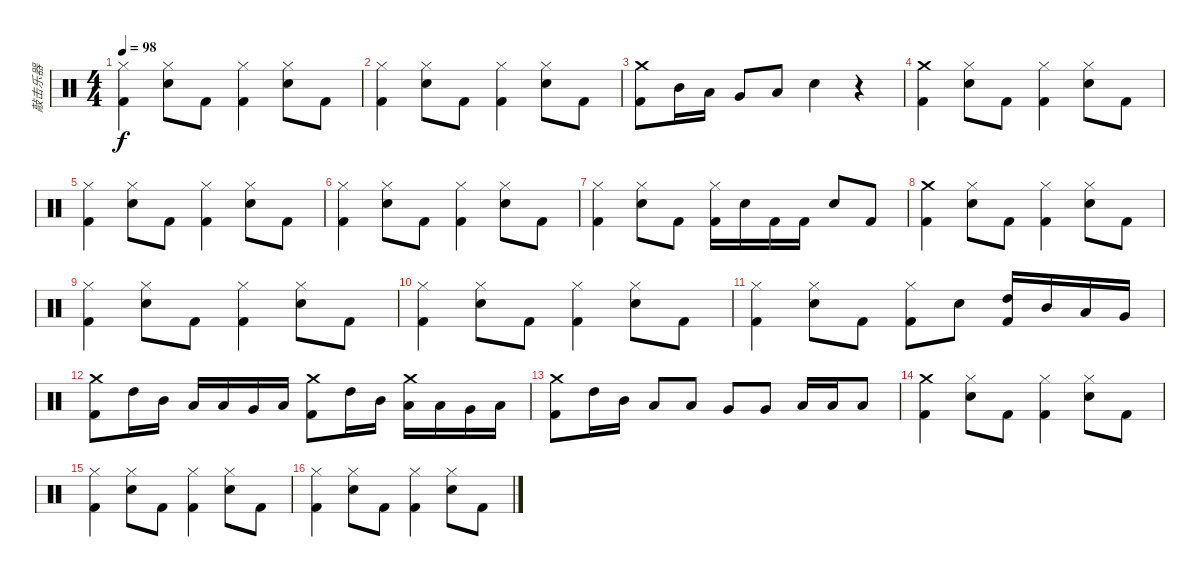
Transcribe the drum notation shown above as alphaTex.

\track ("敲击乐器" "敲击乐器") {instrument percussion}
\staff {score}
\articulation defaults
\ts (4 4)
\tempo 98
\clef neutral
\ks c
("Hi-Hat (closed)" "Kick (hit) 2").4{dy f} ("Hi-Hat (closed)" "Snare (hit) 2").8 "Kick (hit) 2".8 ("Hi-Hat (closed)" "Kick (hit) 2").4 ("Hi-Hat (closed)" "Snare (hit) 2").8 "Kick (hit) 2".8 |
("Hi-Hat (closed)" "Kick (hit) 2").4 ("Hi-Hat (closed)" "Snare (hit) 2").8 "Kick (hit) 2".8 ("Hi-Hat (closed)" "Kick (hit) 2").4 ("Hi-Hat (closed)" "Snare (hit) 2").8 "Kick (hit) 2".8 |
("Crash medium (hit)" "Kick (hit) 2").8 "Mid Tom (hit)".16 "Low Tom (hit)".16 "Very Low Tom (hit)".8 "Low Floor Tom (hit)".8 "Snare (hit) 2".4 r.4 |
("Crash medium (hit)" "Kick (hit) 2").4 ("Hi-Hat (closed)" "Snare (hit) 2").8 "Kick (hit) 2".8 ("Hi-Hat (closed)" "Kick (hit) 2").4 ("Hi-Hat (closed)" "Snare (hit) 2").8 "Kick (hit) 2".8 |
("Hi-Hat (closed)" "Kick (hit) 2").4 ("Hi-Hat (closed)" "Snare (hit) 2").8 "Kick (hit) 2".8 ("Hi-Hat (closed)" "Kick (hit) 2").4 ("Hi-Hat (closed)" "Snare (hit) 2").8 "Kick (hit) 2".8 |
("Hi-Hat (closed)" "Kick (hit) 2").4 ("Hi-Hat (closed)" "Snare (hit) 2").8 "Kick (hit) 2".8 ("Hi-Hat (closed)" "Kick (hit) 2").4 ("Hi-Hat (closed)" "Snare (hit) 2").8 "Kick (hit) 2".8 |
("Hi-Hat (closed)" "Kick (hit) 2").4 ("Hi-Hat (closed)" "Snare (hit) 2").8 "Kick (hit) 2".8 ("Hi-Hat (closed)" "Kick (hit) 2").16 "Snare (hit) 2".16 "Kick (hit) 2".16 "Kick (hit) 2".16 "Snare (hit) 2".8 "Kick (hit) 2".8 |
("Crash medium (hit)" "Kick (hit) 2").4 ("Hi-Hat (closed)" "Snare (hit) 2").8 "Kick (hit) 2".8 ("Hi-Hat (closed)" "Kick (hit) 2").4 ("Hi-Hat (closed)" "Snare (hit) 2").8 "Kick (hit) 2".8 |
("Hi-Hat (closed)" "Kick (hit) 2").4 ("Hi-Hat (closed)" "Snare (hit) 2").8 "Kick (hit) 2".8 ("Hi-Hat (closed)" "Kick (hit) 2").4 ("Hi-Hat (closed)" "Snare (hit) 2").8 "Kick (hit) 2".8 |
("Hi-Hat (closed)" "Kick (hit) 2").4 ("Hi-Hat (closed)" "Snare (hit) 2").8 "Kick (hit) 2".8 ("Hi-Hat (closed)" "Kick (hit) 2").4 ("Hi-Hat (closed)" "Snare (hit) 2").8 "Kick (hit) 2".8 |
("Hi-Hat (closed)" "Kick (hit) 2").4 ("Hi-Hat (closed)" "Snare (hit) 2").8 "Kick (hit) 2".8 ("Hi-Hat (closed)" "Kick (hit) 2").8 "Snare (hit) 2".8 ("High Tom (hit)" "Kick (hit) 2").16 "Mid Tom (hit)".16 "Low Tom (hit)".16 "Very Low Tom (hit)".16 |
("Crash medium (hit)" "Kick (hit) 2").8 "High Tom (hit)".16 "Mid Tom (hit)".16 "Low Tom (hit)".16 "Low Tom (hit)".16 "Very Low Tom (hit)".16 "Low Floor Tom (hit)".16 ("Crash medium (hit)" "Kick (hit) 2").8 "High Tom (hit)".16 "Mid Tom (hit)".16 ("Crash medium (hit)" "Low Tom (hit)").16 "Low Tom (hit)".16 "Very Low Tom (hit)".16 "Low Floor Tom (hit)".16 |
("Crash medium (hit)" "Kick (hit) 2").8 "High Tom (hit)".16 "Mid Tom (hit)".16 "Low Tom (hit)".8 "Low Tom (hit)".8 "Very Low Tom (hit)".8 "Very Low Tom (hit)".8 "Low Floor Tom (hit)".16 "Low Floor Tom (hit)".16 "Low Floor Tom (hit)".8 |
("Crash medium (hit)" "Kick (hit) 2").4 ("Hi-Hat (closed)" "Snare (hit) 2").8 "Kick (hit) 2".8 ("Hi-Hat (closed)" "Kick (hit) 2").4 ("Hi-Hat (closed)" "Snare (hit) 2").8 "Kick (hit) 2".8 |
("Hi-Hat (closed)" "Kick (hit) 2").4 ("Hi-Hat (closed)" "Snare (hit) 2").8 "Kick (hit) 2".8 ("Hi-Hat (closed)" "Kick (hit) 2").4 ("Hi-Hat (closed)" "Snare (hit) 2").8 "Kick (hit) 2".8 |
("Hi-Hat (closed)" "Kick (hit) 2").4 ("Hi-Hat (closed)" "Snare (hit) 2").8 "Kick (hit) 2".8 ("Hi-Hat (closed)" "Kick (hit) 2").4 ("Hi-Hat (closed)" "Snare (hit) 2").8 "Kick (hit) 2".8
